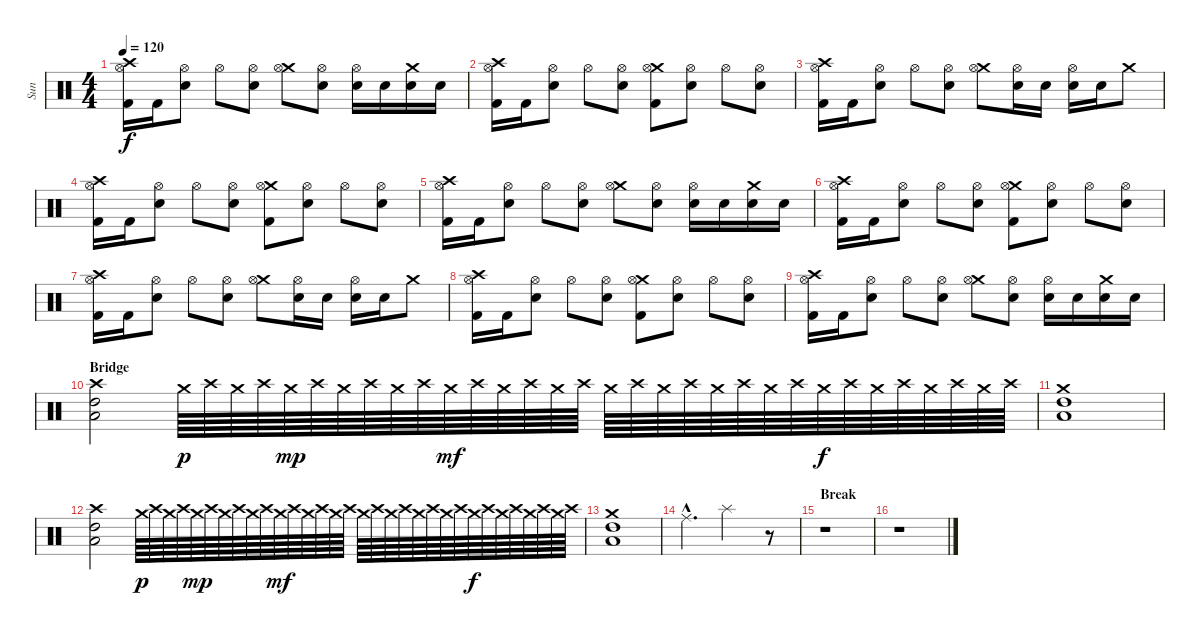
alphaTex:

\track ("Sun" "Sun") {instrument percussion}
\staff {score}
\articulation defaults
\ts (4 4)
\tempo 120
\clef neutral
\ks c
("Crash high (hit)" "Hi-Hat (open)" "Kick (hit) 2").16{dy f} "Kick (hit) 2".16 ("Hi-Hat (open)" "Electric Snare (hit)").8 "Hi-Hat (open)".8 ("Hi-Hat (open)" "Electric Snare (hit)").8 ("Crash medium (hit)" "Hi-Hat (open)").8 ("Hi-Hat (open)" "Electric Snare (hit)").8 ("Hi-Hat (open)" "Electric Snare (hit)").16 "Electric Snare (hit)".16 ("Crash medium (hit)" "Electric Snare (hit)").16 "Electric Snare (hit)".16 |
("Crash high (hit)" "Hi-Hat (open)" "Kick (hit) 2").16 "Kick (hit) 2".16 ("Hi-Hat (open)" "Electric Snare (hit)").8 "Hi-Hat (open)".8 ("Hi-Hat (open)" "Electric Snare (hit)").8 ("Crash medium (hit)" "Hi-Hat (open)" "Kick (hit) 2").8 ("Hi-Hat (open)" "Electric Snare (hit)").8 "Hi-Hat (open)".8 ("Hi-Hat (open)" "Electric Snare (hit)").8 |
("Crash high (hit)" "Hi-Hat (open)" "Kick (hit) 2").16 "Kick (hit) 2".16 ("Hi-Hat (open)" "Electric Snare (hit)").8 "Hi-Hat (open)".8 ("Hi-Hat (open)" "Electric Snare (hit)").8 ("Crash medium (hit)" "Hi-Hat (open)").8 ("Hi-Hat (open)" "Electric Snare (hit)").16 "Electric Snare (hit)".16 ("Hi-Hat (open)" "Electric Snare (hit)").16 "Electric Snare (hit)".16 "Crash medium (hit)".8 |
("Crash high (hit)" "Hi-Hat (open)" "Kick (hit) 2").16 "Kick (hit) 2".16 ("Hi-Hat (open)" "Electric Snare (hit)").8 "Hi-Hat (open)".8 ("Hi-Hat (open)" "Electric Snare (hit)").8 ("Crash medium (hit)" "Hi-Hat (open)" "Kick (hit) 2").8 ("Hi-Hat (open)" "Electric Snare (hit)").8 "Hi-Hat (open)".8 ("Hi-Hat (open)" "Electric Snare (hit)").8 |
("Crash high (hit)" "Hi-Hat (open)" "Kick (hit) 2").16 "Kick (hit) 2".16 ("Hi-Hat (open)" "Electric Snare (hit)").8 "Hi-Hat (open)".8 ("Hi-Hat (open)" "Electric Snare (hit)").8 ("Crash medium (hit)" "Hi-Hat (open)").8 ("Hi-Hat (open)" "Electric Snare (hit)").8 ("Hi-Hat (open)" "Electric Snare (hit)").16 "Electric Snare (hit)".16 ("Crash medium (hit)" "Electric Snare (hit)").16 "Electric Snare (hit)".16 |
("Crash high (hit)" "Hi-Hat (open)" "Kick (hit) 2").16 "Kick (hit) 2".16 ("Hi-Hat (open)" "Electric Snare (hit)").8 "Hi-Hat (open)".8 ("Hi-Hat (open)" "Electric Snare (hit)").8 ("Crash medium (hit)" "Hi-Hat (open)" "Kick (hit) 2").8 ("Hi-Hat (open)" "Electric Snare (hit)").8 "Hi-Hat (open)".8 ("Hi-Hat (open)" "Electric Snare (hit)").8 |
("Crash high (hit)" "Hi-Hat (open)" "Kick (hit) 2").16 "Kick (hit) 2".16 ("Hi-Hat (open)" "Electric Snare (hit)").8 "Hi-Hat (open)".8 ("Hi-Hat (open)" "Electric Snare (hit)").8 ("Crash medium (hit)" "Hi-Hat (open)").8 ("Hi-Hat (open)" "Electric Snare (hit)").16 "Electric Snare (hit)".16 ("Hi-Hat (open)" "Electric Snare (hit)").16 "Electric Snare (hit)".16 "Crash medium (hit)".8 |
("Crash high (hit)" "Hi-Hat (open)" "Kick (hit) 2").16 "Kick (hit) 2".16 ("Hi-Hat (open)" "Electric Snare (hit)").8 "Hi-Hat (open)".8 ("Hi-Hat (open)" "Electric Snare (hit)").8 ("Crash medium (hit)" "Hi-Hat (open)" "Kick (hit) 2").8 ("Hi-Hat (open)" "Electric Snare (hit)").8 "Hi-Hat (open)".8 ("Hi-Hat (open)" "Electric Snare (hit)").8 |
("Crash high (hit)" "Hi-Hat (open)" "Kick (hit) 2").16 "Kick (hit) 2".16 ("Hi-Hat (open)" "Electric Snare (hit)").8 "Hi-Hat (open)".8 ("Hi-Hat (open)" "Electric Snare (hit)").8 ("Crash medium (hit)" "Hi-Hat (open)").8 ("Hi-Hat (open)" "Electric Snare (hit)").8 ("Hi-Hat (open)" "Electric Snare (hit)").16 "Electric Snare (hit)".16 ("Crash medium (hit)" "Electric Snare (hit)").16 "Electric Snare (hit)".16 |
\section ("" "Bridge")
("Crash high (hit)" "High Tom (hit)" "Low Tom (hit)").2 "Crash medium (hit)".64{dy p} "Crash high (hit)".64 "Crash medium (hit)".64 "Crash high (hit)".64 "Crash medium (hit)".64{dy mp} "Crash high (hit)".64 "Crash medium (hit)".64 "Crash high (hit)".64 "Crash medium (hit)".64 "Crash high (hit)".64 "Crash medium (hit)".64{dy mf} "Crash high (hit)".64 "Crash medium (hit)".64 "Crash high (hit)".64 "Crash medium (hit)".64 "Crash high (hit)".64 "Crash medium (hit)".64 "Crash high (hit)".64 "Crash medium (hit)".64 "Crash high (hit)".64 "Crash medium (hit)".64 "Crash high (hit)".64 "Crash medium (hit)".64 "Crash high (hit)".64 "Crash medium (hit)".64{dy f} "Crash high (hit)".64 "Crash medium (hit)".64 "Crash high (hit)".64 "Crash medium (hit)".64 "Crash high (hit)".64 "Crash medium (hit)".64 "Crash high (hit)".64 |
("Crash medium (hit)" "High Tom (hit)" "Low Tom (hit)").1 |
("Crash high (hit)" "High Tom (hit)" "Low Tom (hit)").2 "Crash medium (hit)".64{dy p} "Crash high (hit)".64 "Crash medium (hit)".64 "Crash high (hit)".64 "Crash medium (hit)".64{dy mp} "Crash high (hit)".64 "Crash medium (hit)".64 "Crash high (hit)".64 "Crash medium (hit)".64 "Crash high (hit)".64 "Crash medium (hit)".64{dy mf} "Crash high (hit)".64 "Crash medium (hit)".64 "Crash high (hit)".64 "Crash medium (hit)".64 "Crash high (hit)".64 "Crash medium (hit)".64 "Crash high (hit)".64 "Crash medium (hit)".64 "Crash high (hit)".64 "Crash medium (hit)".64 "Crash high (hit)".64 "Crash medium (hit)".64 "Crash high (hit)".64 "Crash medium (hit)".64{dy f} "Crash high (hit)".64 "Crash medium (hit)".64 "Crash high (hit)".64 "Crash medium (hit)".64 "Crash high (hit)".64 "Crash medium (hit)".64 "Crash high (hit)".64 |
("Crash medium (hit)" "High Tom (hit)" "Low Tom (hit)").1 |
"Ride (middle)"{hac}.4{d} "Splash (hit)".2 r.8 |
\section ("" "Break")
r.1 |
r.1
